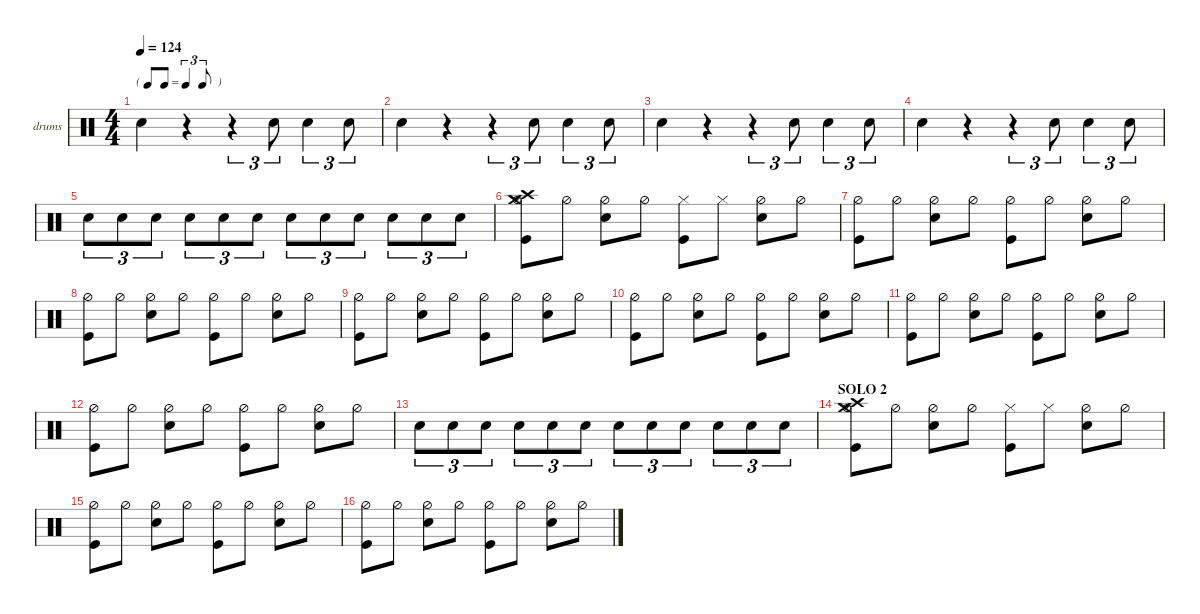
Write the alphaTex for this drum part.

\defaultSystemsLayout 4
\hideDynamics
\bracketExtendMode nobrackets
\firstSystemTrackNameOrientation horizontal
\otherSystemsTrackNameOrientation horizontal
\track ("drums" "drums") {instrument percussion}
\staff {score}
\articulation defaults
\ts (4 4)
\tf triplet8th
\tempo 124
\clef neutral
\scale
1.06392
\ks aminor "Snare (hit) 2".4{dy mf}
r.4 r.4{tu (3 2)} "Snare (hit) 2".8{tu (3 2)} "Snare (hit) 2".4{tu (3 2)} "Snare (hit) 2".8{tu (3 2)} |
\scale
0.978695 "Snare (hit) 2".4 r.4 r.4{tu (3 2)} "Snare (hit) 2".8{tu (3 2)} "Snare (hit) 2".4{tu (3 2)} "Snare (hit) 2".8{tu (3 2)} |
\scale
0.978695 "Snare (hit) 2".4 r.4 r.4{tu (3 2)} "Snare (hit) 2".8{tu (3 2)} "Snare (hit) 2".4{tu (3 2)} "Snare (hit) 2".8{tu (3 2)} |
\scale
0.978695 "Snare (hit) 2".4 r.4 r.4{tu (3 2)} "Snare (hit) 2".8{tu (3 2)} "Snare (hit) 2".4{tu (3 2)} "Snare (hit) 2".8{tu (3 2)} |
\scale
1.06392 "Snare (hit) 2".8{tu (3 2) dy pp} "Snare (hit) 2".8{tu (3 2)} "Snare (hit) 2".8{tu (3 2)} "Snare (hit) 2".8{tu (3 2) dy p} "Snare (hit) 2".8{tu (3 2)} "Snare (hit) 2".8{tu (3 2)} "Snare (hit) 2".8{tu (3 2) dy mp} "Snare (hit) 2".8{tu (3 2)} "Snare (hit) 2".8{tu (3 2)} "Snare (hit) 2".8{tu (3 2) dy mf} "Snare (hit) 2".8{tu (3 2)} "Snare (hit) 2".8{tu (3 2)} |
\scale
0.978695 ("Kick (hit)" "Hi-Hat (half)" "Crash medium (hit)" "Crash high (hit)").8 "Hi-Hat (half)".8 ("Hi-Hat (half)" "Snare (hit) 2").8 "Hi-Hat (half)".8 ("Kick (hit)" "Hi-Hat (closed)").8 "Hi-Hat (closed)".8 ("Hi-Hat (half)" "Snare (hit) 2").8 "Hi-Hat (half)".8 |
\scale
0.978695 ("Kick (hit)" "Hi-Hat (half)").8 "Hi-Hat (half)".8 ("Hi-Hat (half)" "Snare (hit) 2").8 "Hi-Hat (half)".8 ("Kick (hit)" "Hi-Hat (half)").8 "Hi-Hat (half)".8 ("Hi-Hat (half)" "Snare (hit) 2").8 "Hi-Hat (half)".8 |
\scale
0.978695 ("Kick (hit)" "Hi-Hat (half)").8 "Hi-Hat (half)".8 ("Hi-Hat (half)" "Snare (hit) 2").8 "Hi-Hat (half)".8 ("Kick (hit)" "Hi-Hat (half)").8 "Hi-Hat (half)".8 ("Hi-Hat (half)" "Snare (hit) 2").8 "Hi-Hat (half)".8 |
\scale
1.06392 ("Kick (hit)" "Hi-Hat (half)").8 "Hi-Hat (half)".8 ("Hi-Hat (half)" "Snare (hit) 2").8 "Hi-Hat (half)".8 ("Kick (hit)" "Hi-Hat (half)").8 "Hi-Hat (half)".8 ("Hi-Hat (half)" "Snare (hit) 2").8 "Hi-Hat (half)".8 |
\scale
0.978695 ("Kick (hit)" "Hi-Hat (half)").8 "Hi-Hat (half)".8 ("Hi-Hat (half)" "Snare (hit) 2").8 "Hi-Hat (half)".8 ("Kick (hit)" "Hi-Hat (half)").8 "Hi-Hat (half)".8 ("Hi-Hat (half)" "Snare (hit) 2").8 "Hi-Hat (half)".8 |
\scale
0.978695 ("Kick (hit)" "Hi-Hat (half)").8 "Hi-Hat (half)".8 ("Hi-Hat (half)" "Snare (hit) 2").8 "Hi-Hat (half)".8 ("Kick (hit)" "Hi-Hat (half)").8 "Hi-Hat (half)".8 ("Hi-Hat (half)" "Snare (hit) 2").8 "Hi-Hat (half)".8 |
\scale
0.978695 ("Kick (hit)" "Hi-Hat (half)").8 "Hi-Hat (half)".8 ("Hi-Hat (half)" "Snare (hit) 2").8 "Hi-Hat (half)".8 ("Kick (hit)" "Hi-Hat (half)").8 "Hi-Hat (half)".8 ("Hi-Hat (half)" "Snare (hit) 2").8 "Hi-Hat (half)".8 |
\scale
1.07718 "Snare (hit) 2".8{tu (3 2) dy pp} "Snare (hit) 2".8{tu (3 2)} "Snare (hit) 2".8{tu (3 2)} "Snare (hit) 2".8{tu (3 2) dy p} "Snare (hit) 2".8{tu (3 2)} "Snare (hit) 2".8{tu (3 2)} "Snare (hit) 2".8{tu (3 2) dy mp} "Snare (hit) 2".8{tu (3 2)} "Snare (hit) 2".8{tu (3 2)} "Snare (hit) 2".8{tu (3 2) dy mf} "Snare (hit) 2".8{tu (3 2)} "Snare (hit) 2".8{tu (3 2)} |
\section ("" "SOLO 2")
\scale
0.974274 ("Kick (hit)" "Hi-Hat (half)" "Crash medium (hit)" "Crash high (hit)").8 "Hi-Hat (half)".8 ("Hi-Hat (half)" "Snare (hit) 2").8 "Hi-Hat (half)".8 ("Kick (hit)" "Hi-Hat (closed)").8 "Hi-Hat (closed)".8 ("Hi-Hat (half)" "Snare (hit) 2").8 "Hi-Hat (half)".8 |
\scale
0.974274 ("Kick (hit)" "Hi-Hat (half)").8 "Hi-Hat (half)".8 ("Hi-Hat (half)" "Snare (hit) 2").8 "Hi-Hat (half)".8 ("Kick (hit)" "Hi-Hat (half)").8 "Hi-Hat (half)".8 ("Hi-Hat (half)" "Snare (hit) 2").8 "Hi-Hat (half)".8 |
\scale
0.974274 ("Kick (hit)" "Hi-Hat (half)").8 "Hi-Hat (half)".8 ("Hi-Hat (half)" "Snare (hit) 2").8 "Hi-Hat (half)".8 ("Kick (hit)" "Hi-Hat (half)").8 "Hi-Hat (half)".8 ("Hi-Hat (half)" "Snare (hit) 2").8 "Hi-Hat (half)".8
